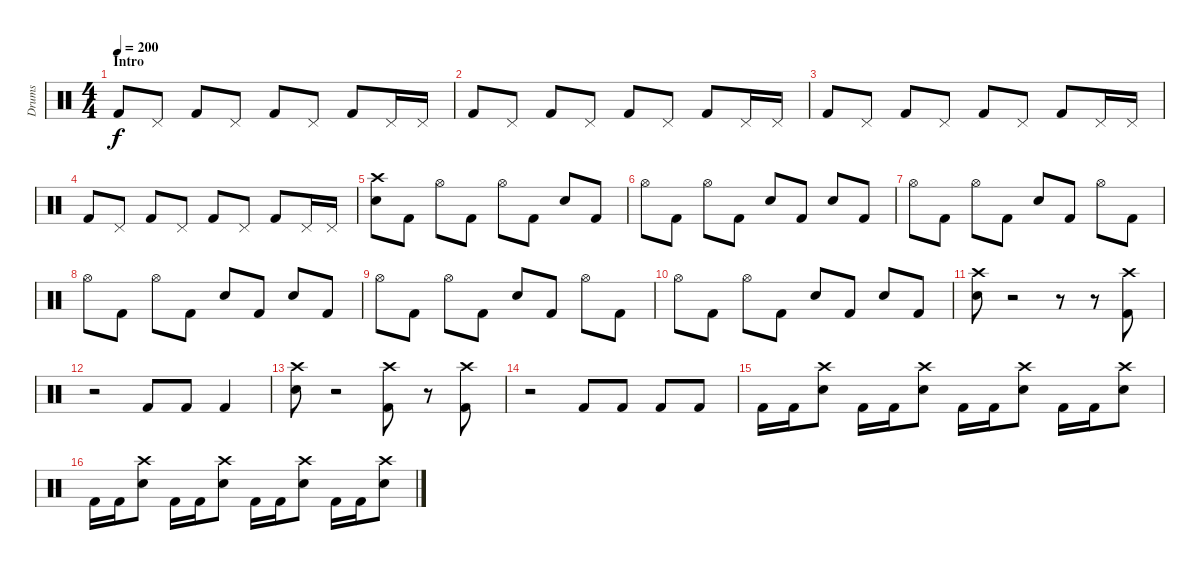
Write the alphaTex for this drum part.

\track ("Drums" "Drums") {instrument percussion}
\staff {score}
\articulation defaults
\ts (4 4)
\section ("" "Intro")
\tempo 200
\clef neutral
\ks c "Kick (hit) 2".8{dy f} "Pedal Hi-Hat (hit)".8 "Kick (hit) 2".8 "Pedal Hi-Hat (hit)".8 "Kick (hit) 2".8 "Pedal Hi-Hat (hit)".8 "Kick (hit) 2".8 "Pedal Hi-Hat (hit)".16 "Pedal Hi-Hat (hit)".16
|
"Kick (hit) 2".8 "Pedal Hi-Hat (hit)".8 "Kick (hit) 2".8 "Pedal Hi-Hat (hit)".8 "Kick (hit) 2".8 "Pedal Hi-Hat (hit)".8 "Kick (hit) 2".8 "Pedal Hi-Hat (hit)".16 "Pedal Hi-Hat (hit)".16 |
"Kick (hit) 2".8 "Pedal Hi-Hat (hit)".8 "Kick (hit) 2".8 "Pedal Hi-Hat (hit)".8 "Kick (hit) 2".8 "Pedal Hi-Hat (hit)".8 "Kick (hit) 2".8 "Pedal Hi-Hat (hit)".16 "Pedal Hi-Hat (hit)".16 |
"Kick (hit) 2".8 "Pedal Hi-Hat (hit)".8 "Kick (hit) 2".8 "Pedal Hi-Hat (hit)".8 "Kick (hit) 2".8 "Pedal Hi-Hat (hit)".8 "Kick (hit) 2".8 "Pedal Hi-Hat (hit)".16 "Pedal Hi-Hat (hit)".16 |
("Crash high (hit)" "Snare (hit) 2").8 "Kick (hit) 2".8 "Hi-Hat (open)".8 "Kick (hit) 2".8 "Hi-Hat (open)".8 "Kick (hit) 2".8 "Snare (hit) 2".8 "Kick (hit) 2".8 |
"Hi-Hat (open)".8 "Kick (hit) 2".8 "Hi-Hat (open)".8 "Kick (hit) 2".8 "Snare (hit) 2".8 "Kick (hit) 2".8 "Snare (hit) 2".8 "Kick (hit) 2".8 |
"Hi-Hat (open)".8 "Kick (hit) 2".8 "Hi-Hat (open)".8 "Kick (hit) 2".8 "Snare (hit) 2".8 "Kick (hit) 2".8 "Hi-Hat (open)".8 "Kick (hit) 2".8 |
"Hi-Hat (open)".8 "Kick (hit) 2".8 "Hi-Hat (open)".8 "Kick (hit) 2".8 "Snare (hit) 2".8 "Kick (hit) 2".8 "Snare (hit) 2".8 "Kick (hit) 2".8 |
"Hi-Hat (open)".8 "Kick (hit) 2".8 "Hi-Hat (open)".8 "Kick (hit) 2".8 "Snare (hit) 2".8 "Kick (hit) 2".8 "Hi-Hat (open)".8 "Kick (hit) 2".8 |
"Hi-Hat (open)".8 "Kick (hit) 2".8 "Hi-Hat (open)".8 "Kick (hit) 2".8 "Snare (hit) 2".8 "Kick (hit) 2".8 "Snare (hit) 2".8 "Kick (hit) 2".8 |
("Crash high (hit)" "Snare (hit) 2").8 r.2 r.8 r.8 ("Crash high (hit)" "Kick (hit) 2").8 |
r.2 "Kick (hit) 2".8 "Kick (hit) 2".8 "Kick (hit) 2".4 |
("Crash high (hit)" "Snare (hit) 2").8 r.2 ("Crash high (hit)" "Kick (hit) 2").8 r.8 ("Crash high (hit)" "Kick (hit) 2").8 |
r.2 "Kick (hit) 2".8 "Kick (hit) 2".8 "Kick (hit) 2".8 "Kick (hit) 2".8 |
"Kick (hit) 2".16 "Kick (hit) 2".16 ("Crash high (hit)" "Snare (hit) 2").8 "Kick (hit) 2".16 "Kick (hit) 2".16 ("Crash high (hit)" "Snare (hit) 2").8 "Kick (hit) 2".16 "Kick (hit) 2".16 ("Crash high (hit)" "Snare (hit) 2").8 "Kick (hit) 2".16 "Kick (hit) 2".16 ("Crash high (hit)" "Snare (hit) 2").8 |
"Kick (hit) 2".16 "Kick (hit) 2".16 ("Crash high (hit)" "Snare (hit) 2").8 "Kick (hit) 2".16 "Kick (hit) 2".16 ("Crash high (hit)" "Snare (hit) 2").8 "Kick (hit) 2".16 "Kick (hit) 2".16 ("Crash high (hit)" "Snare (hit) 2").8 "Kick (hit) 2".16 "Kick (hit) 2".16 ("Crash high (hit)" "Snare (hit) 2").8
